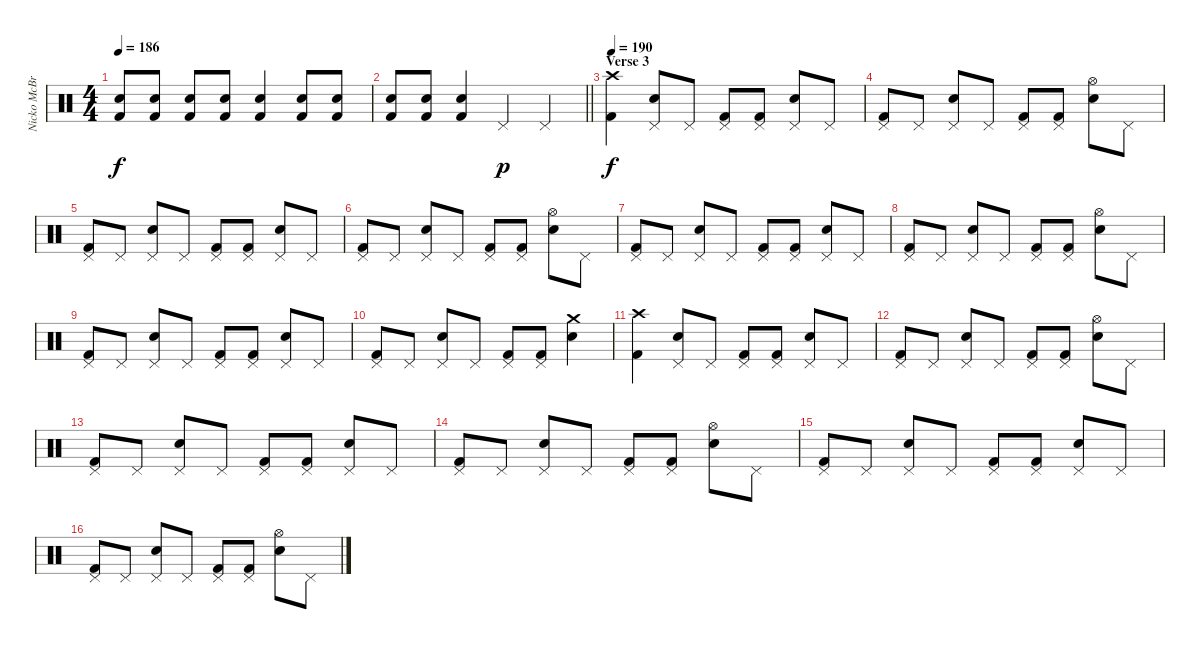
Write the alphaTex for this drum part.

\track ("Nicko McBrain" "Nicko McBr") {instrument percussion}
\staff {score}
\articulation defaults
\ts (4 4)
\tempo 186
\clef neutral
\ks c
("Electric Snare (hit)" "Kick (hit) 2").8{dy f} ("Electric Snare (hit)" "Kick (hit) 2").8 ("Electric Snare (hit)" "Kick (hit) 2").8 ("Electric Snare (hit)" "Kick (hit) 2").8 ("Electric Snare (hit)" "Kick (hit) 2").4 ("Electric Snare (hit)" "Kick (hit) 2").8 ("Electric Snare (hit)" "Kick (hit) 2").8 |
\barLineRight lightlight
("Electric Snare (hit)" "Kick (hit) 2").8 ("Electric Snare (hit)" "Kick (hit) 2").8 ("Electric Snare (hit)" "Kick (hit) 2").4 "Pedal Hi-Hat (hit)".4{dy p} "Pedal Hi-Hat (hit)".4 |
\section ("" "Verse 3")
\tempo 190
("Crash high (hit)" "Kick (hit) 2").4{dy f} ("Pedal Hi-Hat (hit)" "Electric Snare (hit)").8 "Pedal Hi-Hat (hit)".8 ("Pedal Hi-Hat (hit)" "Kick (hit) 2").8 ("Pedal Hi-Hat (hit)" "Kick (hit) 2").8 ("Pedal Hi-Hat (hit)" "Electric Snare (hit)").8 "Pedal Hi-Hat (hit)".8 |
("Pedal Hi-Hat (hit)" "Kick (hit) 2").8 "Pedal Hi-Hat (hit)".8 ("Pedal Hi-Hat (hit)" "Electric Snare (hit)").8 "Pedal Hi-Hat (hit)".8 ("Pedal Hi-Hat (hit)" "Kick (hit) 2").8 ("Pedal Hi-Hat (hit)" "Kick (hit) 2").8 ("Hi-Hat (open)" "Electric Snare (hit)").8 "Pedal Hi-Hat (hit)".8 |
("Pedal Hi-Hat (hit)" "Kick (hit) 2").8 "Pedal Hi-Hat (hit)".8 ("Pedal Hi-Hat (hit)" "Electric Snare (hit)").8 "Pedal Hi-Hat (hit)".8 ("Pedal Hi-Hat (hit)" "Kick (hit) 2").8 ("Pedal Hi-Hat (hit)" "Kick (hit) 2").8 ("Pedal Hi-Hat (hit)" "Electric Snare (hit)").8 "Pedal Hi-Hat (hit)".8 |
("Pedal Hi-Hat (hit)" "Kick (hit) 2").8 "Pedal Hi-Hat (hit)".8 ("Pedal Hi-Hat (hit)" "Electric Snare (hit)").8 "Pedal Hi-Hat (hit)".8 ("Pedal Hi-Hat (hit)" "Kick (hit) 2").8 ("Pedal Hi-Hat (hit)" "Kick (hit) 2").8 ("Hi-Hat (open)" "Electric Snare (hit)").8 "Pedal Hi-Hat (hit)".8 |
("Pedal Hi-Hat (hit)" "Kick (hit) 2").8 "Pedal Hi-Hat (hit)".8 ("Pedal Hi-Hat (hit)" "Electric Snare (hit)").8 "Pedal Hi-Hat (hit)".8 ("Pedal Hi-Hat (hit)" "Kick (hit) 2").8 ("Pedal Hi-Hat (hit)" "Kick (hit) 2").8 ("Pedal Hi-Hat (hit)" "Electric Snare (hit)").8 "Pedal Hi-Hat (hit)".8 |
("Pedal Hi-Hat (hit)" "Kick (hit) 2").8 "Pedal Hi-Hat (hit)".8 ("Pedal Hi-Hat (hit)" "Electric Snare (hit)").8 "Pedal Hi-Hat (hit)".8 ("Pedal Hi-Hat (hit)" "Kick (hit) 2").8 ("Pedal Hi-Hat (hit)" "Kick (hit) 2").8 ("Hi-Hat (open)" "Electric Snare (hit)").8 "Pedal Hi-Hat (hit)".8 |
("Pedal Hi-Hat (hit)" "Kick (hit) 2").8 "Pedal Hi-Hat (hit)".8 ("Pedal Hi-Hat (hit)" "Electric Snare (hit)").8 "Pedal Hi-Hat (hit)".8 ("Pedal Hi-Hat (hit)" "Kick (hit) 2").8 ("Pedal Hi-Hat (hit)" "Kick (hit) 2").8 ("Pedal Hi-Hat (hit)" "Electric Snare (hit)").8 "Pedal Hi-Hat (hit)".8 |
("Pedal Hi-Hat (hit)" "Kick (hit) 2").8 "Pedal Hi-Hat (hit)".8 ("Pedal Hi-Hat (hit)" "Electric Snare (hit)").8 "Pedal Hi-Hat (hit)".8 ("Pedal Hi-Hat (hit)" "Kick (hit) 2").8 ("Pedal Hi-Hat (hit)" "Kick (hit) 2").8 ("Crash medium (hit)" "Electric Snare (hit)").4 |
("Crash high (hit)" "Kick (hit) 2").4 ("Pedal Hi-Hat (hit)" "Electric Snare (hit)").8 "Pedal Hi-Hat (hit)".8 ("Pedal Hi-Hat (hit)" "Kick (hit) 2").8 ("Pedal Hi-Hat (hit)" "Kick (hit) 2").8 ("Pedal Hi-Hat (hit)" "Electric Snare (hit)").8 "Pedal Hi-Hat (hit)".8 |
("Pedal Hi-Hat (hit)" "Kick (hit) 2").8 "Pedal Hi-Hat (hit)".8 ("Pedal Hi-Hat (hit)" "Electric Snare (hit)").8 "Pedal Hi-Hat (hit)".8 ("Pedal Hi-Hat (hit)" "Kick (hit) 2").8 ("Pedal Hi-Hat (hit)" "Kick (hit) 2").8 ("Hi-Hat (open)" "Electric Snare (hit)").8 "Pedal Hi-Hat (hit)".8 |
("Pedal Hi-Hat (hit)" "Kick (hit) 2").8 "Pedal Hi-Hat (hit)".8 ("Pedal Hi-Hat (hit)" "Electric Snare (hit)").8 "Pedal Hi-Hat (hit)".8 ("Pedal Hi-Hat (hit)" "Kick (hit) 2").8 ("Pedal Hi-Hat (hit)" "Kick (hit) 2").8 ("Pedal Hi-Hat (hit)" "Electric Snare (hit)").8 "Pedal Hi-Hat (hit)".8 |
("Pedal Hi-Hat (hit)" "Kick (hit) 2").8 "Pedal Hi-Hat (hit)".8 ("Pedal Hi-Hat (hit)" "Electric Snare (hit)").8 "Pedal Hi-Hat (hit)".8 ("Pedal Hi-Hat (hit)" "Kick (hit) 2").8 ("Pedal Hi-Hat (hit)" "Kick (hit) 2").8 ("Hi-Hat (open)" "Electric Snare (hit)").8 "Pedal Hi-Hat (hit)".8 |
("Pedal Hi-Hat (hit)" "Kick (hit) 2").8 "Pedal Hi-Hat (hit)".8 ("Pedal Hi-Hat (hit)" "Electric Snare (hit)").8 "Pedal Hi-Hat (hit)".8 ("Pedal Hi-Hat (hit)" "Kick (hit) 2").8 ("Pedal Hi-Hat (hit)" "Kick (hit) 2").8 ("Pedal Hi-Hat (hit)" "Electric Snare (hit)").8 "Pedal Hi-Hat (hit)".8 |
("Pedal Hi-Hat (hit)" "Kick (hit) 2").8 "Pedal Hi-Hat (hit)".8 ("Pedal Hi-Hat (hit)" "Electric Snare (hit)").8 "Pedal Hi-Hat (hit)".8 ("Pedal Hi-Hat (hit)" "Kick (hit) 2").8 ("Pedal Hi-Hat (hit)" "Kick (hit) 2").8 ("Hi-Hat (open)" "Electric Snare (hit)").8 "Pedal Hi-Hat (hit)".8
